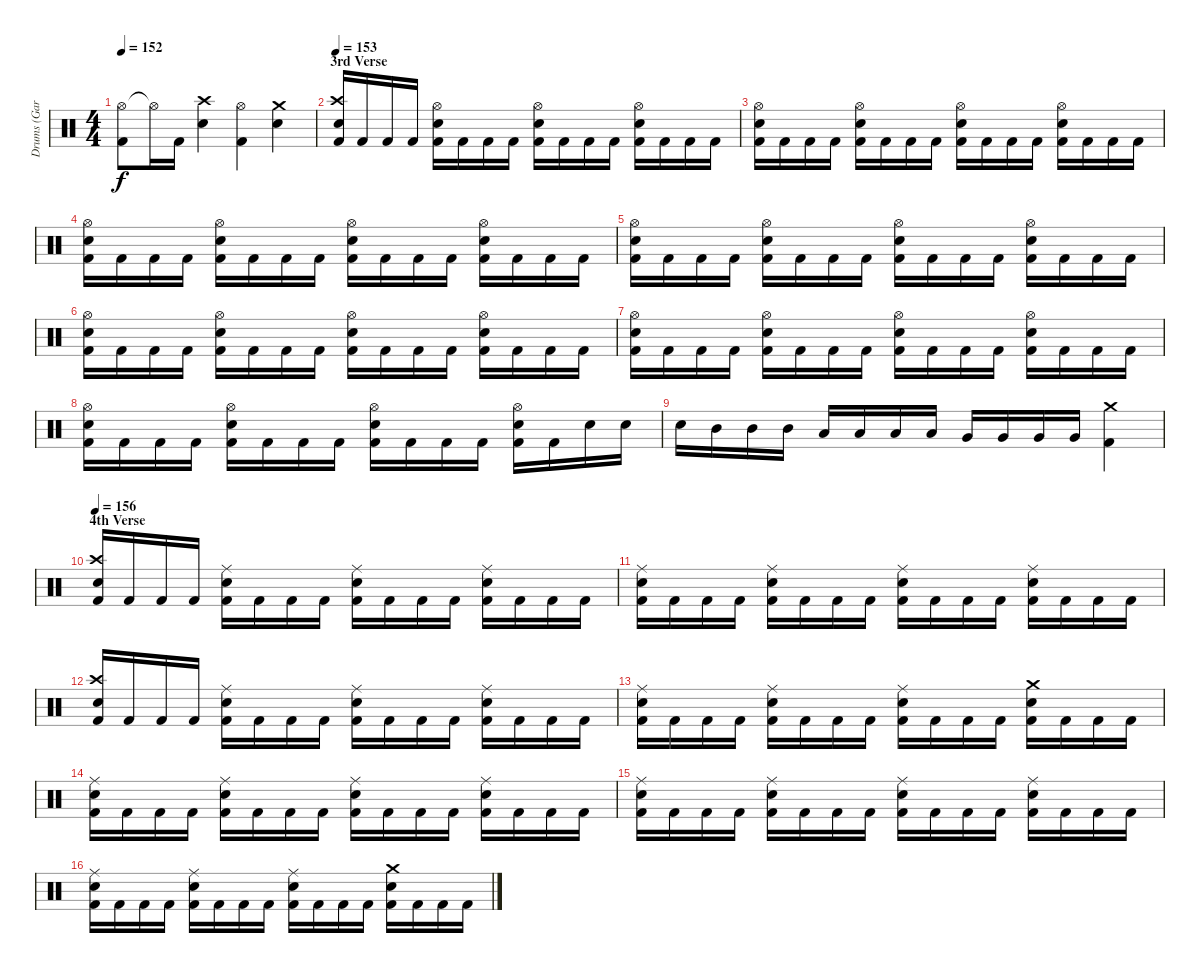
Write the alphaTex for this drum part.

\track ("Drums (Gar Samuelson)" "Drums (Gar") {instrument percussion}
\staff {score}
\articulation defaults
\ts (4 4)
\tempo 152
\clef neutral
\ks c
("Hi-Hat (open)" "Kick (hit) 2").8{dy f} "Hi-Hat (open)"{t}.16 "Kick (hit) 2".16 ("Crash high (hit)" "Snare (hit) 2").4 ("Hi-Hat (open)" "Kick (hit) 2").4 ("Crash medium (hit)" "Snare (hit) 2").4 |
\section ("" "3rd Verse")
\tempo 153
("Crash high (hit)" "Snare (hit) 2" "Kick (hit) 2").16 "Kick (hit) 2".16 "Kick (hit) 2".16 "Kick (hit) 2".16 ("Hi-Hat (open)" "Snare (hit) 2" "Kick (hit) 2").16 "Kick (hit) 2".16 "Kick (hit) 2".16 "Kick (hit) 2".16 ("Hi-Hat (open)" "Snare (hit) 2" "Kick (hit) 2").16 "Kick (hit) 2".16 "Kick (hit) 2".16 "Kick (hit) 2".16 ("Hi-Hat (open)" "Snare (hit) 2" "Kick (hit) 2").16 "Kick (hit) 2".16 "Kick (hit) 2".16 "Kick (hit) 2".16 |
("Hi-Hat (open)" "Snare (hit) 2" "Kick (hit) 2").16 "Kick (hit) 2".16 "Kick (hit) 2".16 "Kick (hit) 2".16 ("Hi-Hat (open)" "Snare (hit) 2" "Kick (hit) 2").16 "Kick (hit) 2".16 "Kick (hit) 2".16 "Kick (hit) 2".16 ("Hi-Hat (open)" "Snare (hit) 2" "Kick (hit) 2").16 "Kick (hit) 2".16 "Kick (hit) 2".16 "Kick (hit) 2".16 ("Hi-Hat (open)" "Snare (hit) 2" "Kick (hit) 2").16 "Kick (hit) 2".16 "Kick (hit) 2".16 "Kick (hit) 2".16 |
("Hi-Hat (open)" "Snare (hit) 2" "Kick (hit) 2").16 "Kick (hit) 2".16 "Kick (hit) 2".16 "Kick (hit) 2".16 ("Hi-Hat (open)" "Snare (hit) 2" "Kick (hit) 2").16 "Kick (hit) 2".16 "Kick (hit) 2".16 "Kick (hit) 2".16 ("Hi-Hat (open)" "Snare (hit) 2" "Kick (hit) 2").16 "Kick (hit) 2".16 "Kick (hit) 2".16 "Kick (hit) 2".16 ("Hi-Hat (open)" "Snare (hit) 2" "Kick (hit) 2").16 "Kick (hit) 2".16 "Kick (hit) 2".16 "Kick (hit) 2".16 |
("Hi-Hat (open)" "Snare (hit) 2" "Kick (hit) 2").16 "Kick (hit) 2".16 "Kick (hit) 2".16 "Kick (hit) 2".16 ("Hi-Hat (open)" "Snare (hit) 2" "Kick (hit) 2").16 "Kick (hit) 2".16 "Kick (hit) 2".16 "Kick (hit) 2".16 ("Hi-Hat (open)" "Snare (hit) 2" "Kick (hit) 2").16 "Kick (hit) 2".16 "Kick (hit) 2".16 "Kick (hit) 2".16 ("Hi-Hat (open)" "Snare (hit) 2" "Kick (hit) 2").16 "Kick (hit) 2".16 "Kick (hit) 2".16 "Kick (hit) 2".16 |
("Hi-Hat (open)" "Snare (hit) 2" "Kick (hit) 2").16 "Kick (hit) 2".16 "Kick (hit) 2".16 "Kick (hit) 2".16 ("Hi-Hat (open)" "Snare (hit) 2" "Kick (hit) 2").16 "Kick (hit) 2".16 "Kick (hit) 2".16 "Kick (hit) 2".16 ("Hi-Hat (open)" "Snare (hit) 2" "Kick (hit) 2").16 "Kick (hit) 2".16 "Kick (hit) 2".16 "Kick (hit) 2".16 ("Hi-Hat (open)" "Snare (hit) 2" "Kick (hit) 2").16 "Kick (hit) 2".16 "Kick (hit) 2".16 "Kick (hit) 2".16 |
("Hi-Hat (open)" "Snare (hit) 2" "Kick (hit) 2").16 "Kick (hit) 2".16 "Kick (hit) 2".16 "Kick (hit) 2".16 ("Hi-Hat (open)" "Snare (hit) 2" "Kick (hit) 2").16 "Kick (hit) 2".16 "Kick (hit) 2".16 "Kick (hit) 2".16 ("Hi-Hat (open)" "Snare (hit) 2" "Kick (hit) 2").16 "Kick (hit) 2".16 "Kick (hit) 2".16 "Kick (hit) 2".16 ("Hi-Hat (open)" "Snare (hit) 2" "Kick (hit) 2").16 "Kick (hit) 2".16 "Kick (hit) 2".16 "Kick (hit) 2".16 |
("Hi-Hat (open)" "Snare (hit) 2" "Kick (hit) 2").16 "Kick (hit) 2".16 "Kick (hit) 2".16 "Kick (hit) 2".16 ("Hi-Hat (open)" "Snare (hit) 2" "Kick (hit) 2").16 "Kick (hit) 2".16 "Kick (hit) 2".16 "Kick (hit) 2".16 ("Hi-Hat (open)" "Snare (hit) 2" "Kick (hit) 2").16 "Kick (hit) 2".16 "Kick (hit) 2".16 "Kick (hit) 2".16 ("Hi-Hat (open)" "Snare (hit) 2" "Kick (hit) 2").16 "Kick (hit) 2".16 "Snare (hit) 2".16 "Snare (hit) 2".16 |
"Snare (hit) 2".16 "Mid Tom (hit)".16 "Mid Tom (hit)".16 "Mid Tom (hit)".16 "Low Tom (hit)".16 "Low Tom (hit)".16 "Low Tom (hit)".16 "Low Tom (hit)".16 "Very Low Tom (hit)".16 "Very Low Tom (hit)".16 "Very Low Tom (hit)".16 "Very Low Tom (hit)".16 ("Crash medium (hit)" "Kick (hit) 2").4 |
\section ("" "4th Verse")
\tempo 156
("Crash high (hit)" "Snare (hit) 2" "Kick (hit) 2").16 "Kick (hit) 2".16 "Kick (hit) 2".16 "Kick (hit) 2".16 ("Ride (middle)" "Snare (hit) 2" "Kick (hit) 2").16 "Kick (hit) 2".16 "Kick (hit) 2".16 "Kick (hit) 2".16 ("Ride (middle)" "Snare (hit) 2" "Kick (hit) 2").16 "Kick (hit) 2".16 "Kick (hit) 2".16 "Kick (hit) 2".16 ("Ride (middle)" "Snare (hit) 2" "Kick (hit) 2").16 "Kick (hit) 2".16 "Kick (hit) 2".16 "Kick (hit) 2".16 |
("Ride (middle)" "Snare (hit) 2" "Kick (hit) 2").16 "Kick (hit) 2".16 "Kick (hit) 2".16 "Kick (hit) 2".16 ("Ride (middle)" "Snare (hit) 2" "Kick (hit) 2").16 "Kick (hit) 2".16 "Kick (hit) 2".16 "Kick (hit) 2".16 ("Ride (middle)" "Snare (hit) 2" "Kick (hit) 2").16 "Kick (hit) 2".16 "Kick (hit) 2".16 "Kick (hit) 2".16 ("Ride (middle)" "Snare (hit) 2" "Kick (hit) 2").16 "Kick (hit) 2".16 "Kick (hit) 2".16 "Kick (hit) 2".16 |
("Crash high (hit)" "Snare (hit) 2" "Kick (hit) 2").16 "Kick (hit) 2".16 "Kick (hit) 2".16 "Kick (hit) 2".16 ("Ride (middle)" "Snare (hit) 2" "Kick (hit) 2").16 "Kick (hit) 2".16 "Kick (hit) 2".16 "Kick (hit) 2".16 ("Ride (middle)" "Snare (hit) 2" "Kick (hit) 2").16 "Kick (hit) 2".16 "Kick (hit) 2".16 "Kick (hit) 2".16 ("Ride (middle)" "Snare (hit) 2" "Kick (hit) 2").16 "Kick (hit) 2".16 "Kick (hit) 2".16 "Kick (hit) 2".16 |
("Ride (middle)" "Snare (hit) 2" "Kick (hit) 2").16 "Kick (hit) 2".16 "Kick (hit) 2".16 "Kick (hit) 2".16 ("Ride (middle)" "Snare (hit) 2" "Kick (hit) 2").16 "Kick (hit) 2".16 "Kick (hit) 2".16 "Kick (hit) 2".16 ("Ride (middle)" "Snare (hit) 2" "Kick (hit) 2").16 "Kick (hit) 2".16 "Kick (hit) 2".16 "Kick (hit) 2".16 ("Crash medium (hit)" "Snare (hit) 2" "Kick (hit) 2").16 "Kick (hit) 2".16 "Kick (hit) 2".16 "Kick (hit) 2".16 |
("Ride (middle)" "Snare (hit) 2" "Kick (hit) 2").16 "Kick (hit) 2".16 "Kick (hit) 2".16 "Kick (hit) 2".16 ("Ride (middle)" "Snare (hit) 2" "Kick (hit) 2").16 "Kick (hit) 2".16 "Kick (hit) 2".16 "Kick (hit) 2".16 ("Ride (middle)" "Snare (hit) 2" "Kick (hit) 2").16 "Kick (hit) 2".16 "Kick (hit) 2".16 "Kick (hit) 2".16 ("Ride (middle)" "Snare (hit) 2" "Kick (hit) 2").16 "Kick (hit) 2".16 "Kick (hit) 2".16 "Kick (hit) 2".16 |
("Ride (middle)" "Snare (hit) 2" "Kick (hit) 2").16 "Kick (hit) 2".16 "Kick (hit) 2".16 "Kick (hit) 2".16 ("Ride (middle)" "Snare (hit) 2" "Kick (hit) 2").16 "Kick (hit) 2".16 "Kick (hit) 2".16 "Kick (hit) 2".16 ("Ride (middle)" "Snare (hit) 2" "Kick (hit) 2").16 "Kick (hit) 2".16 "Kick (hit) 2".16 "Kick (hit) 2".16 ("Ride (middle)" "Snare (hit) 2" "Kick (hit) 2").16 "Kick (hit) 2".16 "Kick (hit) 2".16 "Kick (hit) 2".16 |
("Ride (middle)" "Snare (hit) 2" "Kick (hit) 2").16 "Kick (hit) 2".16 "Kick (hit) 2".16 "Kick (hit) 2".16 ("Ride (middle)" "Snare (hit) 2" "Kick (hit) 2").16 "Kick (hit) 2".16 "Kick (hit) 2".16 "Kick (hit) 2".16 ("Ride (middle)" "Snare (hit) 2" "Kick (hit) 2").16 "Kick (hit) 2".16 "Kick (hit) 2".16 "Kick (hit) 2".16 ("Crash medium (hit)" "Snare (hit) 2" "Kick (hit) 2").16 "Kick (hit) 2".16 "Kick (hit) 2".16 "Kick (hit) 2".16
